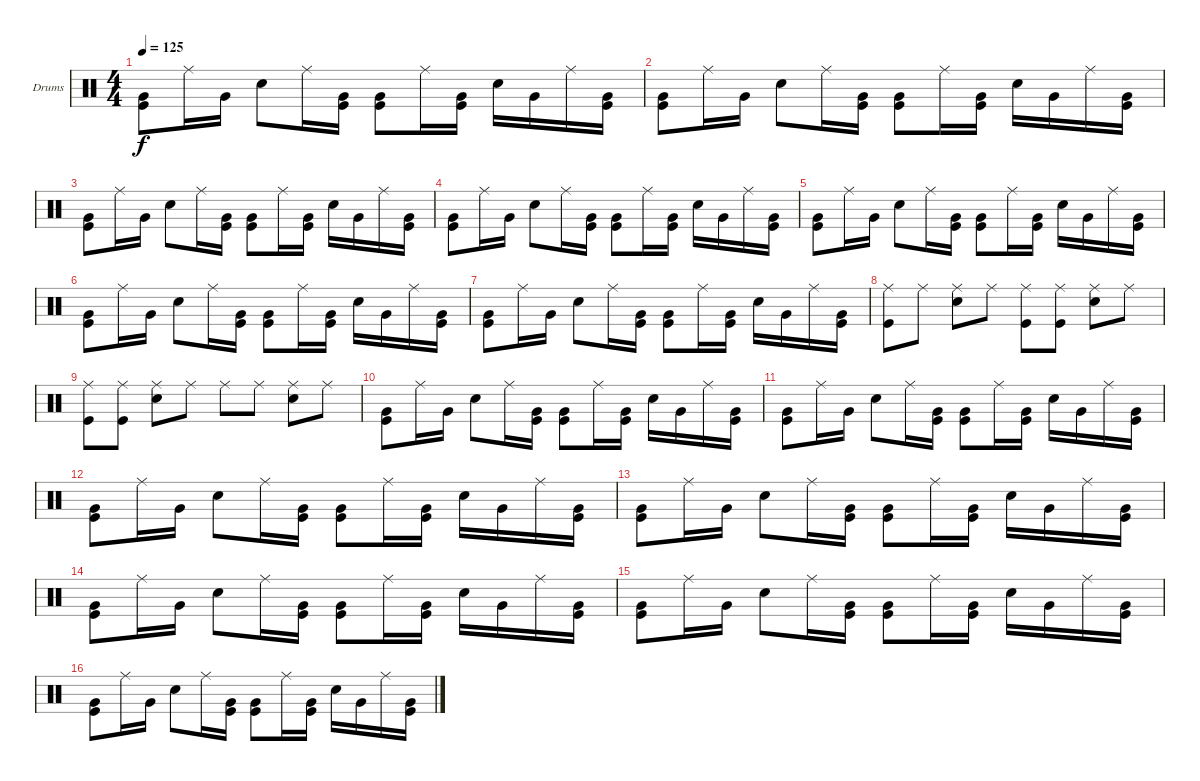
\bracketExtendMode groupsimilarinstruments
\firstSystemTrackNameOrientation horizontal
\otherSystemsTrackNameOrientation horizontal
\track ("Drumkit" "Drums") {instrument percussion}
\staff {score}
\articulation defaults
\ts (4 4)
\tempo 125
\clef neutral
\ks c
("Kick (hit)" "Very Low Tom (hit)").8{dy f} "Ride (middle)".16 "Very Low Tom (hit)".16 "Snare (hit) 2".8 "Ride (middle)".16 ("Kick (hit)" "Very Low Tom (hit)").16 ("Kick (hit)" "Very Low Tom (hit)").8 "Ride (middle)".16 ("Very Low Tom (hit)" "Kick (hit)").16 "Snare (hit) 2".16 "Very Low Tom (hit)".16 "Ride (middle)".16 ("Kick (hit)" "Very Low Tom (hit)").16 |
("Kick (hit)" "Very Low Tom (hit)").8 "Ride (middle)".16 "Very Low Tom (hit)".16 "Snare (hit) 2".8 "Ride (middle)".16 ("Kick (hit)" "Very Low Tom (hit)").16 ("Kick (hit)" "Very Low Tom (hit)").8 "Ride (middle)".16 ("Very Low Tom (hit)" "Kick (hit)").16 "Snare (hit) 2".16 "Very Low Tom (hit)".16 "Ride (middle)".16 ("Kick (hit)" "Very Low Tom (hit)").16 |
("Kick (hit)" "Very Low Tom (hit)").8 "Ride (middle)".16 "Very Low Tom (hit)".16 "Snare (hit) 2".8 "Ride (middle)".16 ("Kick (hit)" "Very Low Tom (hit)").16 ("Kick (hit)" "Very Low Tom (hit)").8 "Ride (middle)".16 ("Very Low Tom (hit)" "Kick (hit)").16 "Snare (hit) 2".16 "Very Low Tom (hit)".16 "Ride (middle)".16 ("Kick (hit)" "Very Low Tom (hit)").16 |
("Kick (hit)" "Very Low Tom (hit)").8 "Ride (middle)".16 "Very Low Tom (hit)".16 "Snare (hit) 2".8 "Ride (middle)".16 ("Kick (hit)" "Very Low Tom (hit)").16 ("Kick (hit)" "Very Low Tom (hit)").8 "Ride (middle)".16 ("Very Low Tom (hit)" "Kick (hit)").16 "Snare (hit) 2".16 "Very Low Tom (hit)".16 "Ride (middle)".16 ("Kick (hit)" "Very Low Tom (hit)").16 |
("Kick (hit)" "Very Low Tom (hit)").8 "Ride (middle)".16 "Very Low Tom (hit)".16 "Snare (hit) 2".8 "Ride (middle)".16 ("Kick (hit)" "Very Low Tom (hit)").16 ("Kick (hit)" "Very Low Tom (hit)").8 "Ride (middle)".16 ("Very Low Tom (hit)" "Kick (hit)").16 "Snare (hit) 2".16 "Very Low Tom (hit)".16 "Ride (middle)".16 ("Kick (hit)" "Very Low Tom (hit)").16 |
("Kick (hit)" "Very Low Tom (hit)").8 "Ride (middle)".16 "Very Low Tom (hit)".16 "Snare (hit) 2".8 "Ride (middle)".16 ("Kick (hit)" "Very Low Tom (hit)").16 ("Kick (hit)" "Very Low Tom (hit)").8 "Ride (middle)".16 ("Very Low Tom (hit)" "Kick (hit)").16 "Snare (hit) 2".16 "Very Low Tom (hit)".16 "Ride (middle)".16 ("Kick (hit)" "Very Low Tom (hit)").16 |
("Kick (hit)" "Very Low Tom (hit)").8 "Ride (middle)".16 "Very Low Tom (hit)".16 "Snare (hit) 2".8 "Ride (middle)".16 ("Kick (hit)" "Very Low Tom (hit)").16 ("Kick (hit)" "Very Low Tom (hit)").8 "Ride (middle)".16 ("Very Low Tom (hit)" "Kick (hit)").16 "Snare (hit) 2".16 "Very Low Tom (hit)".16 "Ride (middle)".16 ("Kick (hit)" "Very Low Tom (hit)").16 |
("Kick (hit)" "Ride (middle)").8 "Ride (middle)".8 ("Snare (hit) 2" "Ride (middle)").8 "Ride (middle)".8 ("Kick (hit)" "Ride (middle)").8 ("Ride (middle)" "Kick (hit)").8 ("Snare (hit) 2" "Ride (middle)").8 "Ride (middle)".8 |
("Kick (hit)" "Ride (middle)").8 ("Ride (middle)" "Kick (hit)").8 ("Snare (hit) 2" "Ride (middle)").8 "Ride (middle)".8 "Ride (middle)".8 "Ride (middle)".8 ("Snare (hit) 2" "Ride (middle)").8 "Ride (middle)".8 |
("Kick (hit)" "Very Low Tom (hit)").8 "Ride (middle)".16 "Very Low Tom (hit)".16 "Snare (hit) 2".8 "Ride (middle)".16 ("Kick (hit)" "Very Low Tom (hit)").16 ("Kick (hit)" "Very Low Tom (hit)").8 "Ride (middle)".16 ("Very Low Tom (hit)" "Kick (hit)").16 "Snare (hit) 2".16 "Very Low Tom (hit)".16 "Ride (middle)".16 ("Kick (hit)" "Very Low Tom (hit)").16 |
("Kick (hit)" "Very Low Tom (hit)").8 "Ride (middle)".16 "Very Low Tom (hit)".16 "Snare (hit) 2".8 "Ride (middle)".16 ("Kick (hit)" "Very Low Tom (hit)").16 ("Kick (hit)" "Very Low Tom (hit)").8 "Ride (middle)".16 ("Very Low Tom (hit)" "Kick (hit)").16 "Snare (hit) 2".16 "Very Low Tom (hit)".16 "Ride (middle)".16 ("Kick (hit)" "Very Low Tom (hit)").16 |
("Kick (hit)" "Very Low Tom (hit)").8 "Ride (middle)".16 "Very Low Tom (hit)".16 "Snare (hit) 2".8 "Ride (middle)".16 ("Kick (hit)" "Very Low Tom (hit)").16 ("Kick (hit)" "Very Low Tom (hit)").8 "Ride (middle)".16 ("Very Low Tom (hit)" "Kick (hit)").16 "Snare (hit) 2".16 "Very Low Tom (hit)".16 "Ride (middle)".16 ("Kick (hit)" "Very Low Tom (hit)").16 |
("Kick (hit)" "Very Low Tom (hit)").8 "Ride (middle)".16 "Very Low Tom (hit)".16 "Snare (hit) 2".8 "Ride (middle)".16 ("Kick (hit)" "Very Low Tom (hit)").16 ("Kick (hit)" "Very Low Tom (hit)").8 "Ride (middle)".16 ("Very Low Tom (hit)" "Kick (hit)").16 "Snare (hit) 2".16 "Very Low Tom (hit)".16 "Ride (middle)".16 ("Kick (hit)" "Very Low Tom (hit)").16 |
("Kick (hit)" "Very Low Tom (hit)").8 "Ride (middle)".16 "Very Low Tom (hit)".16 "Snare (hit) 2".8 "Ride (middle)".16 ("Kick (hit)" "Very Low Tom (hit)").16 ("Kick (hit)" "Very Low Tom (hit)").8 "Ride (middle)".16 ("Very Low Tom (hit)" "Kick (hit)").16 "Snare (hit) 2".16 "Very Low Tom (hit)".16 "Ride (middle)".16 ("Kick (hit)" "Very Low Tom (hit)").16 |
("Kick (hit)" "Very Low Tom (hit)").8 "Ride (middle)".16 "Very Low Tom (hit)".16 "Snare (hit) 2".8 "Ride (middle)".16 ("Kick (hit)" "Very Low Tom (hit)").16 ("Kick (hit)" "Very Low Tom (hit)").8 "Ride (middle)".16 ("Very Low Tom (hit)" "Kick (hit)").16 "Snare (hit) 2".16 "Very Low Tom (hit)".16 "Ride (middle)".16 ("Kick (hit)" "Very Low Tom (hit)").16 |
("Kick (hit)" "Very Low Tom (hit)").8 "Ride (middle)".16 "Very Low Tom (hit)".16 "Snare (hit) 2".8 "Ride (middle)".16 ("Kick (hit)" "Very Low Tom (hit)").16 ("Kick (hit)" "Very Low Tom (hit)").8 "Ride (middle)".16 ("Very Low Tom (hit)" "Kick (hit)").16 "Snare (hit) 2".16 "Very Low Tom (hit)".16 "Ride (middle)".16 ("Kick (hit)" "Very Low Tom (hit)").16
